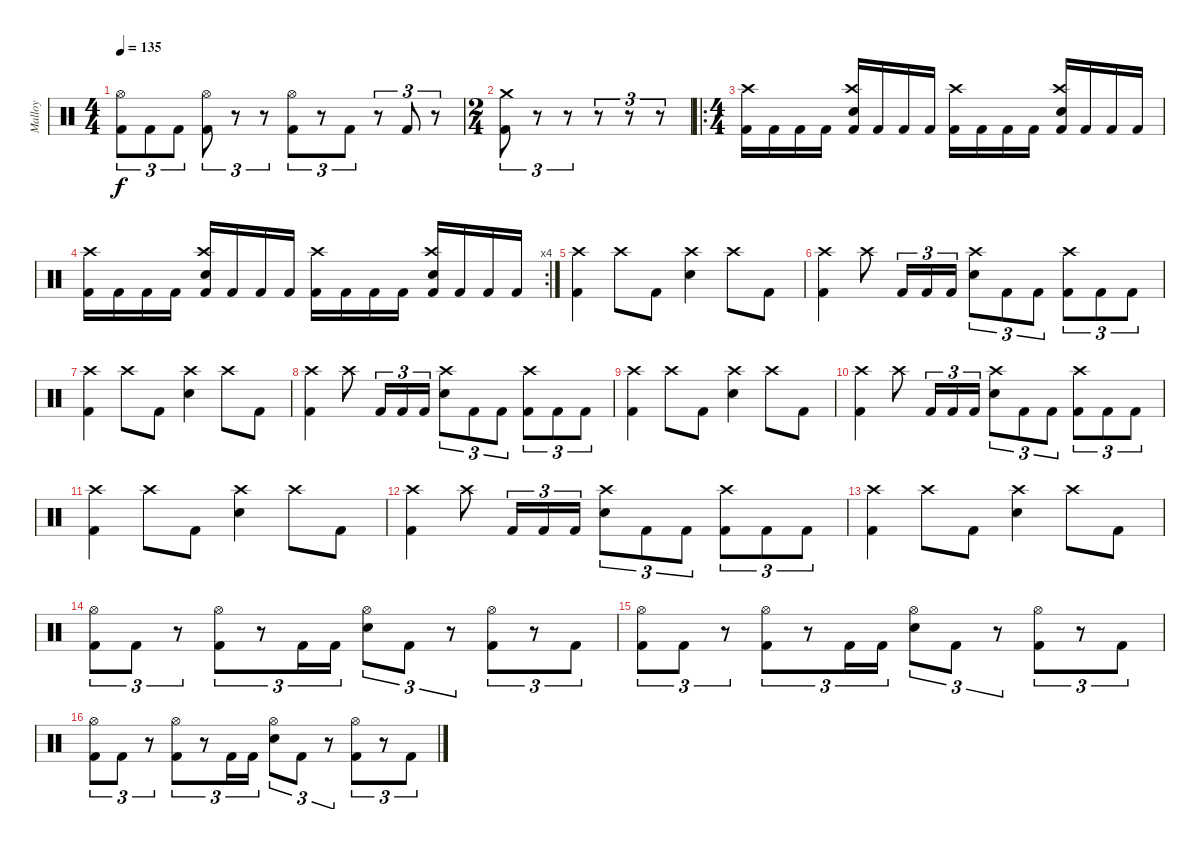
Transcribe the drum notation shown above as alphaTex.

\track ("Malloy" "Malloy") {instrument percussion}
\staff {score}
\articulation defaults
\ts (4 4)
\tempo 135
\clef neutral
\ks c
("Kick (hit) 2" "Hi-Hat (open)").8{tu (3 2) dy f} "Kick (hit) 2".8{tu (3 2)} "Kick (hit) 2".8{tu (3 2)} ("Kick (hit) 2" "Hi-Hat (open)").8{tu (3 2)} r.8{tu (3 2)} r.8{tu (3 2)} ("Kick (hit) 2" "Hi-Hat (open)").8{tu (3 2)} r.8{tu (3 2)} "Kick (hit) 2".8{tu (3 2)} r.8{tu (3 2)} "Kick (hit) 2".8{tu (3 2)} r.8{tu (3 2)} |
\ts (2 4)
("Kick (hit) 2" "Crash medium (hit)").8{tu (3 2)} r.8{tu (3 2)} r.8{tu (3 2)} r.8{tu (3 2)} r.8{tu (3 2)} r.8{tu (3 2)} |
\ro
\ts (4 4)
("Kick (hit) 2" "Crash high (hit)").16 "Kick (hit) 2".16 "Kick (hit) 2".16 "Kick (hit) 2".16 ("Kick (hit) 2" "Electric Snare (hit)" "Crash high (hit)").16 "Kick (hit) 2".16 "Kick (hit) 2".16 "Kick (hit) 2".16 ("Kick (hit) 2" "Crash high (hit)").16 "Kick (hit) 2".16 "Kick (hit) 2".16 "Kick (hit) 2".16 ("Kick (hit) 2" "Electric Snare (hit)" "Crash high (hit)").16 "Kick (hit) 2".16 "Kick (hit) 2".16 "Kick (hit) 2".16 |
\rc 4
("Kick (hit) 2" "Crash high (hit)").16 "Kick (hit) 2".16 "Kick (hit) 2".16 "Kick (hit) 2".16 ("Kick (hit) 2" "Electric Snare (hit)" "Crash high (hit)").16 "Kick (hit) 2".16 "Kick (hit) 2".16 "Kick (hit) 2".16 ("Kick (hit) 2" "Crash high (hit)").16 "Kick (hit) 2".16 "Kick (hit) 2".16 "Kick (hit) 2".16 ("Kick (hit) 2" "Electric Snare (hit)" "Crash high (hit)").16 "Kick (hit) 2".16 "Kick (hit) 2".16 "Kick (hit) 2".16 |
("Kick (hit) 2" "Crash high (hit)").4 "Crash high (hit)".8 "Kick (hit) 2".8 ("Electric Snare (hit)" "Crash high (hit)").4 "Crash high (hit)".8 "Kick (hit) 2".8 |
("Kick (hit) 2" "Crash high (hit)").4 "Crash high (hit)".8 "Kick (hit) 2".16{tu (3 2)} "Kick (hit) 2".16{tu (3 2)} "Kick (hit) 2".16{tu (3 2)} ("Electric Snare (hit)" "Crash high (hit)").8{tu (3 2)} "Kick (hit) 2".8{tu (3 2)} "Kick (hit) 2".8{tu (3 2)} ("Kick (hit) 2" "Crash high (hit)").8{tu (3 2)} "Kick (hit) 2".8{tu (3 2)} "Kick (hit) 2".8{tu (3 2)} |
("Kick (hit) 2" "Crash high (hit)").4 "Crash high (hit)".8 "Kick (hit) 2".8 ("Electric Snare (hit)" "Crash high (hit)").4 "Crash high (hit)".8 "Kick (hit) 2".8 |
("Kick (hit) 2" "Crash high (hit)").4 "Crash high (hit)".8 "Kick (hit) 2".16{tu (3 2)} "Kick (hit) 2".16{tu (3 2)} "Kick (hit) 2".16{tu (3 2)} ("Electric Snare (hit)" "Crash high (hit)").8{tu (3 2)} "Kick (hit) 2".8{tu (3 2)} "Kick (hit) 2".8{tu (3 2)} ("Kick (hit) 2" "Crash high (hit)").8{tu (3 2)} "Kick (hit) 2".8{tu (3 2)} "Kick (hit) 2".8{tu (3 2)} |
("Kick (hit) 2" "Crash high (hit)").4 "Crash high (hit)".8 "Kick (hit) 2".8 ("Electric Snare (hit)" "Crash high (hit)").4 "Crash high (hit)".8 "Kick (hit) 2".8 |
("Kick (hit) 2" "Crash high (hit)").4 "Crash high (hit)".8 "Kick (hit) 2".16{tu (3 2)} "Kick (hit) 2".16{tu (3 2)} "Kick (hit) 2".16{tu (3 2)} ("Electric Snare (hit)" "Crash high (hit)").8{tu (3 2)} "Kick (hit) 2".8{tu (3 2)} "Kick (hit) 2".8{tu (3 2)} ("Kick (hit) 2" "Crash high (hit)").8{tu (3 2)} "Kick (hit) 2".8{tu (3 2)} "Kick (hit) 2".8{tu (3 2)} |
("Kick (hit) 2" "Crash high (hit)").4 "Crash high (hit)".8 "Kick (hit) 2".8 ("Electric Snare (hit)" "Crash high (hit)").4 "Crash high (hit)".8 "Kick (hit) 2".8 |
("Kick (hit) 2" "Crash high (hit)").4 "Crash high (hit)".8 "Kick (hit) 2".16{tu (3 2)} "Kick (hit) 2".16{tu (3 2)} "Kick (hit) 2".16{tu (3 2)} ("Electric Snare (hit)" "Crash high (hit)").8{tu (3 2)} "Kick (hit) 2".8{tu (3 2)} "Kick (hit) 2".8{tu (3 2)} ("Kick (hit) 2" "Crash high (hit)").8{tu (3 2)} "Kick (hit) 2".8{tu (3 2)} "Kick (hit) 2".8{tu (3 2)} |
("Kick (hit) 2" "Crash high (hit)").4 "Crash high (hit)".8 "Kick (hit) 2".8 ("Electric Snare (hit)" "Crash high (hit)").4 "Crash high (hit)".8 "Kick (hit) 2".8 |
("Kick (hit) 2" "Hi-Hat (open)").8{tu (3 2)} "Kick (hit) 2".8{tu (3 2)} r.8{tu (3 2)} ("Kick (hit) 2" "Hi-Hat (open)").8{tu (3 2)} r.8{tu (3 2)} "Kick (hit) 2".16{tu (3 2)} "Kick (hit) 2".16{tu (3 2)} ("Electric Snare (hit)" "Hi-Hat (open)").8{tu (3 2)} "Kick (hit) 2".8{tu (3 2)} r.8{tu (3 2)} ("Kick (hit) 2" "Hi-Hat (open)").8{tu (3 2)} r.8{tu (3 2)} "Kick (hit) 2".8{tu (3 2)} |
("Kick (hit) 2" "Hi-Hat (open)").8{tu (3 2)} "Kick (hit) 2".8{tu (3 2)} r.8{tu (3 2)} ("Kick (hit) 2" "Hi-Hat (open)").8{tu (3 2)} r.8{tu (3 2)} "Kick (hit) 2".16{tu (3 2)} "Kick (hit) 2".16{tu (3 2)} ("Electric Snare (hit)" "Hi-Hat (open)").8{tu (3 2)} "Kick (hit) 2".8{tu (3 2)} r.8{tu (3 2)} ("Kick (hit) 2" "Hi-Hat (open)").8{tu (3 2)} r.8{tu (3 2)} "Kick (hit) 2".8{tu (3 2)} |
("Kick (hit) 2" "Hi-Hat (open)").8{tu (3 2)} "Kick (hit) 2".8{tu (3 2)} r.8{tu (3 2)} ("Kick (hit) 2" "Hi-Hat (open)").8{tu (3 2)} r.8{tu (3 2)} "Kick (hit) 2".16{tu (3 2)} "Kick (hit) 2".16{tu (3 2)} ("Electric Snare (hit)" "Hi-Hat (open)").8{tu (3 2)} "Kick (hit) 2".8{tu (3 2)} r.8{tu (3 2)} ("Kick (hit) 2" "Hi-Hat (open)").8{tu (3 2)} r.8{tu (3 2)} "Kick (hit) 2".8{tu (3 2)}
